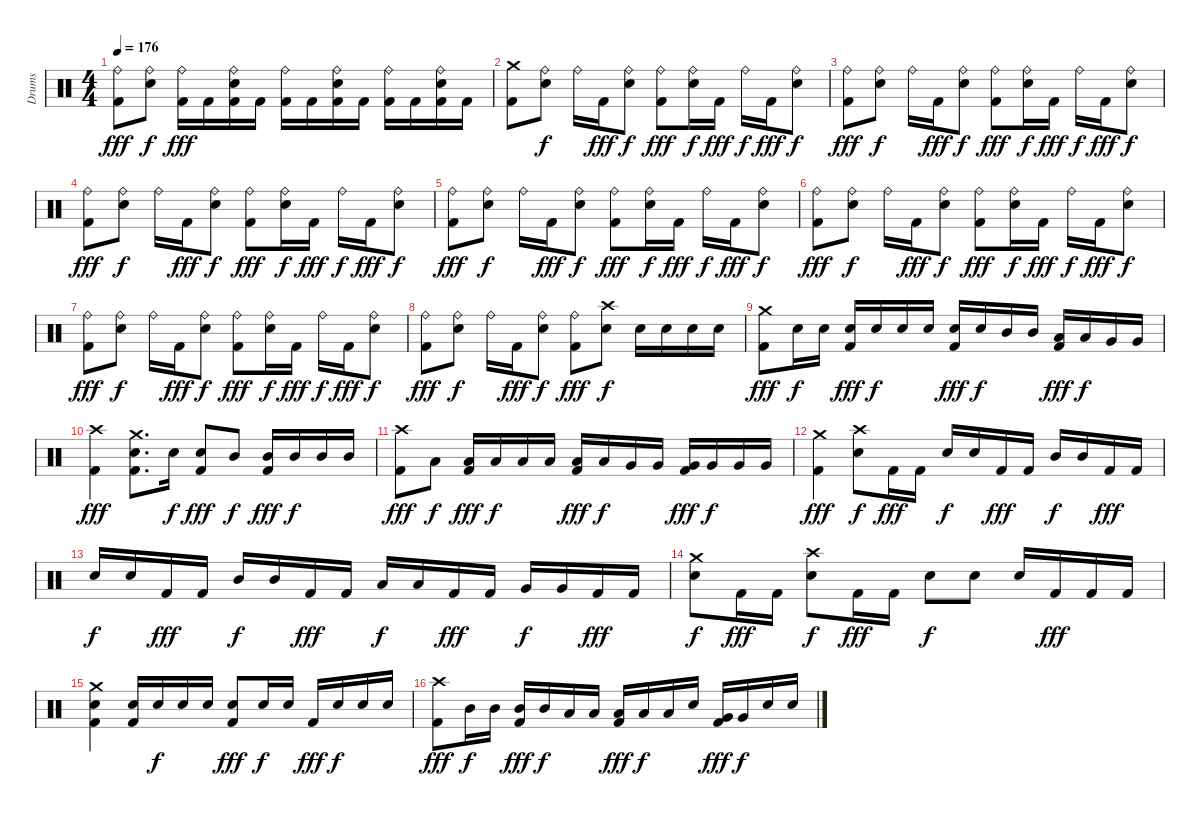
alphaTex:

\track ("Drums" "Drums") {instrument percussion}
\staff {score}
\articulation defaults
\ts (4 4)
\tempo 176
\clef neutral
\ks c
("Ride (bell)" "Kick (hit) 2").8{dy fff} ("Ride (bell)" "Snare (hit) 2").8{dy f} ("Ride (bell)" "Kick (hit) 2").16{dy fff} "Kick (hit) 2".16 ("Ride (bell)" "Snare (hit) 2" "Kick (hit) 2").16 "Kick (hit) 2".16 ("Ride (bell)" "Kick (hit) 2").16 "Kick (hit) 2".16 ("Ride (bell)" "Snare (hit) 2" "Kick (hit) 2").16 "Kick (hit) 2".16 ("Ride (bell)" "Kick (hit) 2").16 "Kick (hit) 2".16 ("Ride (bell)" "Snare (hit) 2" "Kick (hit) 2").16 "Kick (hit) 2".16 |
("Crash medium (hit)" "Kick (hit) 2").8 ("Ride (bell)" "Snare (hit) 2").8{dy f} "Ride (bell)".16 "Kick (hit) 2".16{dy fff} ("Ride (bell)" "Snare (hit) 2").8{dy f} ("Ride (bell)" "Kick (hit) 2").8{dy fff} ("Ride (bell)" "Snare (hit) 2").16{dy f} "Kick (hit) 2".16{dy fff} "Ride (bell)".16{dy f} "Kick (hit) 2".16{dy fff} ("Ride (bell)" "Snare (hit) 2").8{dy f} |
("Ride (bell)" "Kick (hit) 2").8{dy fff} ("Ride (bell)" "Snare (hit) 2").8{dy f} "Ride (bell)".16 "Kick (hit) 2".16{dy fff} ("Ride (bell)" "Snare (hit) 2").8{dy f} ("Ride (bell)" "Kick (hit) 2").8{dy fff} ("Ride (bell)" "Snare (hit) 2").16{dy f} "Kick (hit) 2".16{dy fff} "Ride (bell)".16{dy f} "Kick (hit) 2".16{dy fff} ("Ride (bell)" "Snare (hit) 2").8{dy f} |
("Ride (bell)" "Kick (hit) 2").8{dy fff} ("Ride (bell)" "Snare (hit) 2").8{dy f} "Ride (bell)".16 "Kick (hit) 2".16{dy fff} ("Ride (bell)" "Snare (hit) 2").8{dy f} ("Ride (bell)" "Kick (hit) 2").8{dy fff} ("Ride (bell)" "Snare (hit) 2").16{dy f} "Kick (hit) 2".16{dy fff} "Ride (bell)".16{dy f} "Kick (hit) 2".16{dy fff} ("Ride (bell)" "Snare (hit) 2").8{dy f} |
("Ride (bell)" "Kick (hit) 2").8{dy fff} ("Ride (bell)" "Snare (hit) 2").8{dy f} "Ride (bell)".16 "Kick (hit) 2".16{dy fff} ("Ride (bell)" "Snare (hit) 2").8{dy f} ("Ride (bell)" "Kick (hit) 2").8{dy fff} ("Ride (bell)" "Snare (hit) 2").16{dy f} "Kick (hit) 2".16{dy fff} "Ride (bell)".16{dy f} "Kick (hit) 2".16{dy fff} ("Ride (bell)" "Snare (hit) 2").8{dy f} |
("Ride (bell)" "Kick (hit) 2").8{dy fff} ("Ride (bell)" "Snare (hit) 2").8{dy f} "Ride (bell)".16 "Kick (hit) 2".16{dy fff} ("Ride (bell)" "Snare (hit) 2").8{dy f} ("Ride (bell)" "Kick (hit) 2").8{dy fff} ("Ride (bell)" "Snare (hit) 2").16{dy f} "Kick (hit) 2".16{dy fff} "Ride (bell)".16{dy f} "Kick (hit) 2".16{dy fff} ("Ride (bell)" "Snare (hit) 2").8{dy f} |
("Ride (bell)" "Kick (hit) 2").8{dy fff} ("Ride (bell)" "Snare (hit) 2").8{dy f} "Ride (bell)".16 "Kick (hit) 2".16{dy fff} ("Ride (bell)" "Snare (hit) 2").8{dy f} ("Ride (bell)" "Kick (hit) 2").8{dy fff} ("Ride (bell)" "Snare (hit) 2").16{dy f} "Kick (hit) 2".16{dy fff} "Ride (bell)".16{dy f} "Kick (hit) 2".16{dy fff} ("Ride (bell)" "Snare (hit) 2").8{dy f} |
("Ride (bell)" "Kick (hit) 2").8{dy fff} ("Ride (bell)" "Snare (hit) 2").8{dy f} "Ride (bell)".16 "Kick (hit) 2".16{dy fff} ("Ride (bell)" "Snare (hit) 2").8{dy f} ("Ride (bell)" "Kick (hit) 2").8{dy fff} ("Crash high (hit)" "Snare (hit) 2").8{dy f} "Snare (hit) 2".16 "Snare (hit) 2".16 "Snare (hit) 2".16 "Snare (hit) 2".16 |
("Crash medium (hit)" "Kick (hit) 2").8{dy fff} "Snare (hit) 2".16{dy f} "Snare (hit) 2".16 ("Snare (hit) 2" "Kick (hit) 2").16{dy fff} "Snare (hit) 2".16{dy f} "Snare (hit) 2".16 "Snare (hit) 2".16 ("Snare (hit) 2" "Kick (hit) 2").16{dy fff} "Snare (hit) 2".16{dy f} "Mid Tom (hit)".16 "Mid Tom (hit)".16 ("Low Tom (hit)" "Kick (hit) 2").16{dy fff} "Low Tom (hit)".16{dy f} "Very Low Tom (hit)".16 "Very Low Tom (hit)".16 |
("Crash high (hit)" "Kick (hit) 2").4{dy fff} ("Crash medium (hit)" "Snare (hit) 2" "Kick (hit) 2").8{d} "Snare (hit) 2".16{dy f} ("Snare (hit) 2" "Kick (hit) 2").8{dy fff} "Mid Tom (hit)".8{dy f} ("Mid Tom (hit)" "Kick (hit) 2").16{dy fff} "Mid Tom (hit)".16{dy f} "Mid Tom (hit)".16 "Mid Tom (hit)".16 |
("Crash high (hit)" "Kick (hit) 2").8{dy fff} "Low Tom (hit)".8{dy f} ("Low Tom (hit)" "Kick (hit) 2").16{dy fff} "Low Tom (hit)".16{dy f} "Low Tom (hit)".16 "Low Tom (hit)".16 ("Low Tom (hit)" "Kick (hit) 2").16{dy fff} "Low Tom (hit)".16{dy f} "Very Low Tom (hit)".16 "Very Low Tom (hit)".16 ("Very Low Tom (hit)" "Kick (hit) 2").16{dy fff} "Very Low Tom (hit)".16{dy f} "Very Low Tom (hit)".16 "Very Low Tom (hit)".16 |
("Crash medium (hit)" "Kick (hit) 2").4{dy fff} ("Crash high (hit)" "Snare (hit) 2").8{dy f} "Kick (hit) 2".16{dy fff} "Kick (hit) 2".16 "Snare (hit) 2".16{dy f} "Snare (hit) 2".16 "Kick (hit) 2".16{dy fff} "Kick (hit) 2".16 "Mid Tom (hit)".16{dy f} "Mid Tom (hit)".16 "Kick (hit) 2".16{dy fff} "Kick (hit) 2".16 |
"Snare (hit) 2".16{dy f} "Snare (hit) 2".16 "Kick (hit) 2".16{dy fff} "Kick (hit) 2".16 "Mid Tom (hit)".16{dy f} "Mid Tom (hit)".16 "Kick (hit) 2".16{dy fff} "Kick (hit) 2".16 "Low Tom (hit)".16{dy f} "Low Tom (hit)".16 "Kick (hit) 2".16{dy fff} "Kick (hit) 2".16 "Very Low Tom (hit)".16{dy f} "Very Low Tom (hit)".16 "Kick (hit) 2".16{dy fff} "Kick (hit) 2".16 |
("Crash medium (hit)" "Snare (hit) 2").8{dy f} "Kick (hit) 2".16{dy fff} "Kick (hit) 2".16 ("Crash high (hit)" "Snare (hit) 2").8{dy f} "Kick (hit) 2".16{dy fff} "Kick (hit) 2".16 "Snare (hit) 2".8{dy f} "Snare (hit) 2".8 "Snare (hit) 2".16 "Kick (hit) 2".16{dy fff} "Kick (hit) 2".16 "Kick (hit) 2".16 |
("Crash medium (hit)" "Snare (hit) 2" "Kick (hit) 2").4 ("Snare (hit) 2" "Kick (hit) 2").16 "Snare (hit) 2".16{dy f} "Snare (hit) 2".16 "Snare (hit) 2".16 ("Snare (hit) 2" "Kick (hit) 2").8{dy fff} "Snare (hit) 2".16{dy f} "Snare (hit) 2".16 "Kick (hit) 2".16{dy fff} "Snare (hit) 2".16{dy f} "Snare (hit) 2".16 "Snare (hit) 2".16 |
("Crash high (hit)" "Kick (hit) 2").8{dy fff} "Mid Tom (hit)".16{dy f} "Mid Tom (hit)".16 ("Mid Tom (hit)" "Kick (hit) 2").16{dy fff} "Mid Tom (hit)".16{dy f} "Low Tom (hit)".16 "Low Tom (hit)".16 ("Low Tom (hit)" "Kick (hit) 2").16{dy fff} "Low Tom (hit)".16{dy f} "Low Tom (hit)".16 "Snare (hit) 2".16 ("Very Low Tom (hit)" "Kick (hit) 2").16{dy fff} "Very Low Tom (hit)".16{dy f} "Snare (hit) 2".16 "Snare (hit) 2".16
